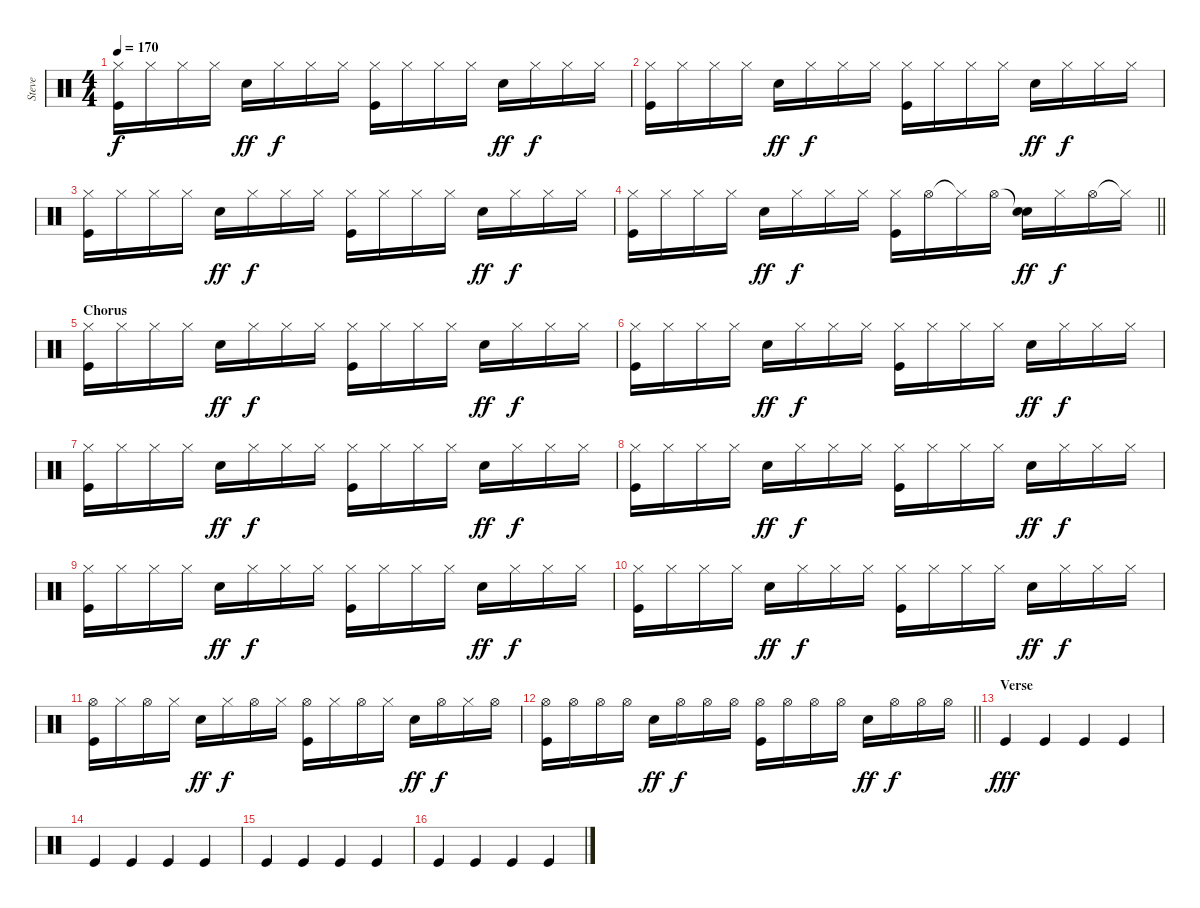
\track ("Steve" "Steve") {instrument percussion}
\staff {score}
\articulation defaults
\ts (4 4)
\tempo 170
\clef neutral
\ks c
("Hi-Hat (closed)" "Kick (hit)").16{dy f} "Hi-Hat (closed)".16 "Hi-Hat (closed)".16 "Hi-Hat (closed)".16 "Electric Snare (hit)".16{dy ff} "Hi-Hat (closed)".16{dy f} "Hi-Hat (closed)".16 "Hi-Hat (closed)".16 ("Hi-Hat (closed)" "Kick (hit)").16 "Hi-Hat (closed)".16 "Hi-Hat (closed)".16 "Hi-Hat (closed)".16 "Electric Snare (hit)".16{dy ff} "Hi-Hat (closed)".16{dy f} "Hi-Hat (closed)".16 "Hi-Hat (closed)".16 |
("Hi-Hat (closed)" "Kick (hit)").16 "Hi-Hat (closed)".16 "Hi-Hat (closed)".16 "Hi-Hat (closed)".16 "Electric Snare (hit)".16{dy ff} "Hi-Hat (closed)".16{dy f} "Hi-Hat (closed)".16 "Hi-Hat (closed)".16 ("Hi-Hat (closed)" "Kick (hit)").16 "Hi-Hat (closed)".16 "Hi-Hat (closed)".16 "Hi-Hat (closed)".16 "Electric Snare (hit)".16{dy ff} "Hi-Hat (closed)".16{dy f} "Hi-Hat (closed)".16 "Hi-Hat (closed)".16 |
("Hi-Hat (closed)" "Kick (hit)").16 "Hi-Hat (closed)".16 "Hi-Hat (closed)".16 "Hi-Hat (closed)".16 "Electric Snare (hit)".16{dy ff} "Hi-Hat (closed)".16{dy f} "Hi-Hat (closed)".16 "Hi-Hat (closed)".16 ("Hi-Hat (closed)" "Kick (hit)").16 "Hi-Hat (closed)".16 "Hi-Hat (closed)".16 "Hi-Hat (closed)".16 "Electric Snare (hit)".16{dy ff} "Hi-Hat (closed)".16{dy f} "Hi-Hat (closed)".16 "Hi-Hat (closed)".16 |
\barLineRight lightlight
("Hi-Hat (closed)" "Kick (hit)").16 "Hi-Hat (closed)".16 "Hi-Hat (closed)".16 "Hi-Hat (closed)".16 "Electric Snare (hit)".16{dy ff} "Hi-Hat (closed)".16{dy f} "Hi-Hat (closed)".16 "Hi-Hat (closed)".16 ("Hi-Hat (closed)" "Kick (hit)").16 "Hi-Hat (open)".16 "Hi-Hat (closed)"{t}.16 "Hi-Hat (open)".16 ("Snare (hit)"{t} "Electric Snare (hit)").16{dy ff} "Hi-Hat (closed)".16{dy f} "Hi-Hat (open)".16 "Hi-Hat (closed)"{t}.16 |
\section ("" "Chorus")
("Hi-Hat (closed)" "Kick (hit)").16 "Hi-Hat (closed)".16 "Hi-Hat (closed)".16 "Hi-Hat (closed)".16 "Electric Snare (hit)".16{dy ff} "Hi-Hat (closed)".16{dy f} "Hi-Hat (closed)".16 "Hi-Hat (closed)".16 ("Hi-Hat (closed)" "Kick (hit)").16 "Hi-Hat (closed)".16 "Hi-Hat (closed)".16 "Hi-Hat (closed)".16 "Electric Snare (hit)".16{dy ff} "Hi-Hat (closed)".16{dy f} "Hi-Hat (closed)".16 "Hi-Hat (closed)".16 |
("Hi-Hat (closed)" "Kick (hit)").16 "Hi-Hat (closed)".16 "Hi-Hat (closed)".16 "Hi-Hat (closed)".16 "Electric Snare (hit)".16{dy ff} "Hi-Hat (closed)".16{dy f} "Hi-Hat (closed)".16 "Hi-Hat (closed)".16 ("Hi-Hat (closed)" "Kick (hit)").16 "Hi-Hat (closed)".16 "Hi-Hat (closed)".16 "Hi-Hat (closed)".16 "Electric Snare (hit)".16{dy ff} "Hi-Hat (closed)".16{dy f} "Hi-Hat (closed)".16 "Hi-Hat (closed)".16 |
("Hi-Hat (closed)" "Kick (hit)").16 "Hi-Hat (closed)".16 "Hi-Hat (closed)".16 "Hi-Hat (closed)".16 "Electric Snare (hit)".16{dy ff} "Hi-Hat (closed)".16{dy f} "Hi-Hat (closed)".16 "Hi-Hat (closed)".16 ("Hi-Hat (closed)" "Kick (hit)").16 "Hi-Hat (closed)".16 "Hi-Hat (closed)".16 "Hi-Hat (closed)".16 "Electric Snare (hit)".16{dy ff} "Hi-Hat (closed)".16{dy f} "Hi-Hat (closed)".16 "Hi-Hat (closed)".16 |
("Hi-Hat (closed)" "Kick (hit)").16 "Hi-Hat (closed)".16 "Hi-Hat (closed)".16 "Hi-Hat (closed)".16 "Electric Snare (hit)".16{dy ff} "Hi-Hat (closed)".16{dy f} "Hi-Hat (closed)".16 "Hi-Hat (closed)".16 ("Hi-Hat (closed)" "Kick (hit)").16 "Hi-Hat (closed)".16 "Hi-Hat (closed)".16 "Hi-Hat (closed)".16 "Electric Snare (hit)".16{dy ff} "Hi-Hat (closed)".16{dy f} "Hi-Hat (closed)".16 "Hi-Hat (closed)".16 |
("Hi-Hat (closed)" "Kick (hit)").16 "Hi-Hat (closed)".16 "Hi-Hat (closed)".16 "Hi-Hat (closed)".16 "Electric Snare (hit)".16{dy ff} "Hi-Hat (closed)".16{dy f} "Hi-Hat (closed)".16 "Hi-Hat (closed)".16 ("Hi-Hat (closed)" "Kick (hit)").16 "Hi-Hat (closed)".16 "Hi-Hat (closed)".16 "Hi-Hat (closed)".16 "Electric Snare (hit)".16{dy ff} "Hi-Hat (closed)".16{dy f} "Hi-Hat (closed)".16 "Hi-Hat (closed)".16 |
("Hi-Hat (closed)" "Kick (hit)").16 "Hi-Hat (closed)".16 "Hi-Hat (closed)".16 "Hi-Hat (closed)".16 "Electric Snare (hit)".16{dy ff} "Hi-Hat (closed)".16{dy f} "Hi-Hat (closed)".16 "Hi-Hat (closed)".16 ("Hi-Hat (closed)" "Kick (hit)").16 "Hi-Hat (closed)".16 "Hi-Hat (closed)".16 "Hi-Hat (closed)".16 "Electric Snare (hit)".16{dy ff} "Hi-Hat (closed)".16{dy f} "Hi-Hat (closed)".16 "Hi-Hat (closed)".16 |
("Hi-Hat (open)" "Kick (hit)").16 "Hi-Hat (closed)".16 "Hi-Hat (open)".16 "Hi-Hat (closed)".16 "Electric Snare (hit)".16{dy ff} "Hi-Hat (closed)".16{dy f} "Hi-Hat (open)".16 "Hi-Hat (closed)".16 ("Hi-Hat (open)" "Kick (hit)").16 "Hi-Hat (closed)".16 "Hi-Hat (open)".16 "Hi-Hat (closed)".16 "Electric Snare (hit)".16{dy ff} "Hi-Hat (open)".16{dy f} "Hi-Hat (closed)".16 "Hi-Hat (open)".16 |
\barLineRight lightlight
("Hi-Hat (open)" "Kick (hit)").16 "Hi-Hat (open)".16 "Hi-Hat (open)".16 "Hi-Hat (open)".16 "Electric Snare (hit)".16{dy ff} "Hi-Hat (open)".16{dy f} "Hi-Hat (open)".16 "Hi-Hat (open)".16 ("Hi-Hat (open)" "Kick (hit)").16 "Hi-Hat (open)".16 "Hi-Hat (open)".16 "Hi-Hat (open)".16 "Electric Snare (hit)".16{dy ff} "Hi-Hat (open)".16{dy f} "Hi-Hat (open)".16 "Hi-Hat (open)".16 |
\section ("" "Verse")
"Kick (hit)".4{dy fff} "Kick (hit)".4 "Kick (hit)".4 "Kick (hit)".4 |
"Kick (hit)".4 "Kick (hit)".4 "Kick (hit)".4 "Kick (hit)".4 |
"Kick (hit)".4 "Kick (hit)".4 "Kick (hit)".4 "Kick (hit)".4 |
"Kick (hit)".4 "Kick (hit)".4 "Kick (hit)".4 "Kick (hit)".4
